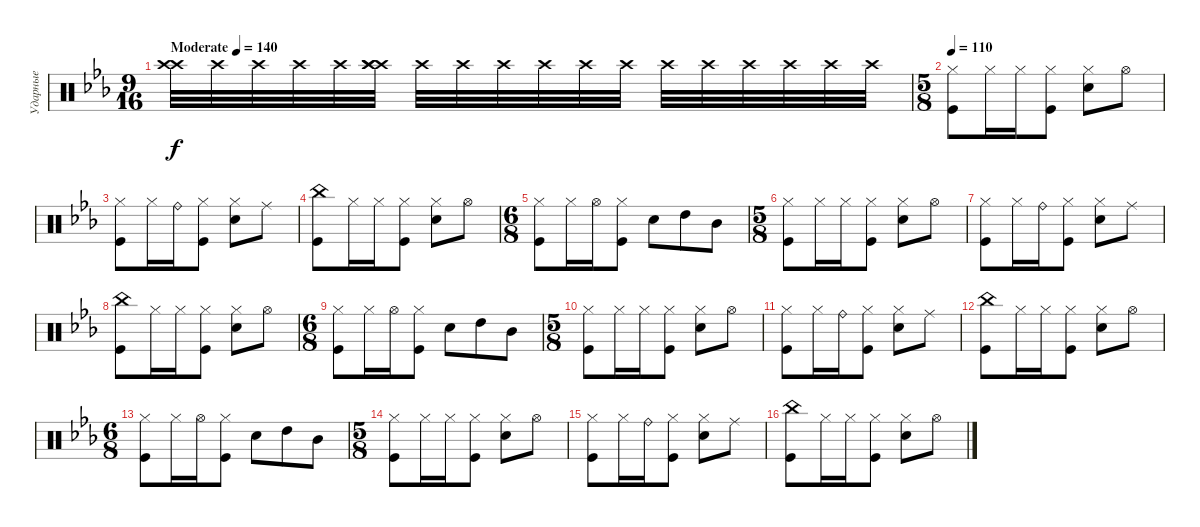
\track ("Ударные" "Ударные") {instrument percussion}
\staff {score}
\articulation defaults
\ts (9 16)
\tempo (140 "Moderate")
\clef neutral
\ks cminor
("Crash high (hit)" "Crash high (hit)").32{dy f volume 0} "Crash high (hit)".32 "Crash high (hit)".32{volume 13} "Crash high (hit)".32 "Crash high (hit)".32 ("Crash high (hit)" "Crash high (hit)" "Crash high (hit)").32 "Crash high (hit)".32 "Crash high (hit)".32 "Crash high (hit)".32 "Crash high (hit)".32 "Crash high (hit)".32 "Crash high (hit)".32 "Crash high (hit)".32 "Crash high (hit)".32 "Crash high (hit)".32 "Crash high (hit)".32 "Crash high (hit)".32 "Crash high (hit)".32 |
\ts (5 8)
\tempo 110
("Kick (hit)" "Hi-Hat (closed)").8 "Hi-Hat (closed)".16 "Hi-Hat (closed)".16 ("Kick (hit)" "Hi-Hat (closed)").8 ("Snare (hit) 2" "Hi-Hat (closed)").8 "Hi-Hat (open)".8 |
("Kick (hit)" "Hi-Hat (closed)").8 "Hi-Hat (closed)".16 "Ride (bell)".16 ("Kick (hit)" "Hi-Hat (closed)").8 ("Snare (hit) 2" "Hi-Hat (closed)").8 "Ride (middle)".8 |
("China (hit)" "Kick (hit)").8 "Hi-Hat (closed)".16 "Hi-Hat (closed)".16 ("Kick (hit)" "Hi-Hat (closed)").8 ("Snare (hit) 2" "Hi-Hat (closed)").8 "Hi-Hat (open)".8 |
\ts (6 8)
("Kick (hit)" "Hi-Hat (closed)").8 "Hi-Hat (closed)".16 "Hi-Hat (open)".16 ("Hi-Hat (closed)" "Kick (hit)").8 "Snare (hit) 2".8 "High Tom (hit)".8 "Mid Tom (hit)".8 |
\ts (5 8)
("Kick (hit)" "Hi-Hat (closed)").8 "Hi-Hat (closed)".16 "Hi-Hat (closed)".16 ("Kick (hit)" "Hi-Hat (closed)").8 ("Snare (hit) 2" "Hi-Hat (closed)").8 "Hi-Hat (open)".8 |
("Kick (hit)" "Hi-Hat (closed)").8 "Hi-Hat (closed)".16 "Ride (bell)".16 ("Kick (hit)" "Hi-Hat (closed)").8 ("Snare (hit) 2" "Hi-Hat (closed)").8 "Ride (middle)".8 |
("China (hit)" "Kick (hit)").8 "Hi-Hat (closed)".16 "Hi-Hat (closed)".16 ("Kick (hit)" "Hi-Hat (closed)").8 ("Snare (hit) 2" "Hi-Hat (closed)").8 "Hi-Hat (open)".8 |
\ts (6 8)
("Kick (hit)" "Hi-Hat (closed)").8 "Hi-Hat (closed)".16 "Hi-Hat (open)".16 ("Hi-Hat (closed)" "Kick (hit)").8 "Snare (hit) 2".8 "High Tom (hit)".8 "Mid Tom (hit)".8 |
\ts (5 8)
("Kick (hit)" "Hi-Hat (closed)").8 "Hi-Hat (closed)".16 "Hi-Hat (closed)".16 ("Kick (hit)" "Hi-Hat (closed)").8 ("Snare (hit) 2" "Hi-Hat (closed)").8 "Hi-Hat (open)".8 |
("Kick (hit)" "Hi-Hat (closed)").8 "Hi-Hat (closed)".16 "Ride (bell)".16 ("Kick (hit)" "Hi-Hat (closed)").8 ("Snare (hit) 2" "Hi-Hat (closed)").8 "Ride (middle)".8 |
("China (hit)" "Kick (hit)").8 "Hi-Hat (closed)".16 "Hi-Hat (closed)".16 ("Kick (hit)" "Hi-Hat (closed)").8 ("Snare (hit) 2" "Hi-Hat (closed)").8 "Hi-Hat (open)".8 |
\ts (6 8)
("Kick (hit)" "Hi-Hat (closed)").8 "Hi-Hat (closed)".16 "Hi-Hat (open)".16 ("Hi-Hat (closed)" "Kick (hit)").8 "Snare (hit) 2".8 "High Tom (hit)".8 "Mid Tom (hit)".8 |
\ts (5 8)
("Kick (hit)" "Hi-Hat (closed)").8 "Hi-Hat (closed)".16 "Hi-Hat (closed)".16 ("Kick (hit)" "Hi-Hat (closed)").8 ("Snare (hit) 2" "Hi-Hat (closed)").8 "Hi-Hat (open)".8 |
("Kick (hit)" "Hi-Hat (closed)").8 "Hi-Hat (closed)".16 "Ride (bell)".16 ("Kick (hit)" "Hi-Hat (closed)").8 ("Snare (hit) 2" "Hi-Hat (closed)").8 "Ride (middle)".8 |
("China (hit)" "Kick (hit)").8 "Hi-Hat (closed)".16 "Hi-Hat (closed)".16 ("Kick (hit)" "Hi-Hat (closed)").8 ("Snare (hit) 2" "Hi-Hat (closed)").8 "Hi-Hat (open)".8
